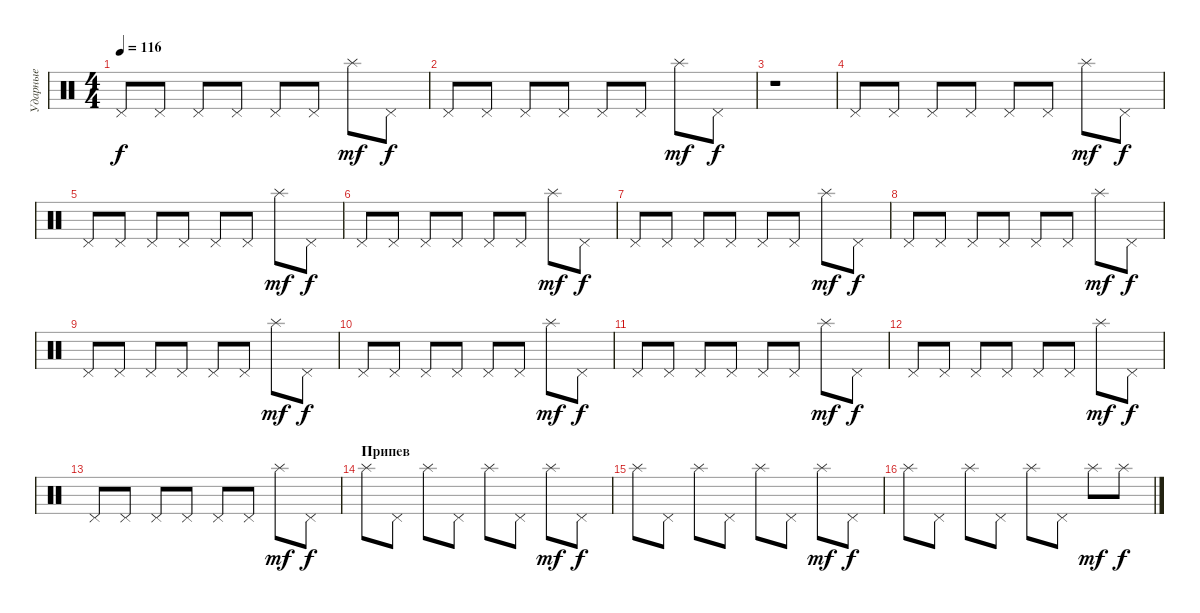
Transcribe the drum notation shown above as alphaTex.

\track ("Ударные" "Ударные") {instrument percussion}
\staff {score}
\articulation defaults
\ts (4 4)
\tempo 116
\clef neutral
\ks c "Pedal Hi-Hat (hit)".8{dy f} "Pedal Hi-Hat (hit)".8 "Pedal Hi-Hat (hit)".8 "Pedal Hi-Hat (hit)".8 "Pedal Hi-Hat (hit)".8 "Pedal Hi-Hat (hit)".8 "Splash (hit)".8{dy mf} "Pedal Hi-Hat (hit)".8{dy f}
|
"Pedal Hi-Hat (hit)".8 "Pedal Hi-Hat (hit)".8 "Pedal Hi-Hat (hit)".8 "Pedal Hi-Hat (hit)".8 "Pedal Hi-Hat (hit)".8 "Pedal Hi-Hat (hit)".8 "Splash (hit)".8{dy mf} "Pedal Hi-Hat (hit)".8{dy f} |
r.1 |
"Pedal Hi-Hat (hit)".8 "Pedal Hi-Hat (hit)".8 "Pedal Hi-Hat (hit)".8 "Pedal Hi-Hat (hit)".8 "Pedal Hi-Hat (hit)".8 "Pedal Hi-Hat (hit)".8 "Splash (hit)".8{dy mf} "Pedal Hi-Hat (hit)".8{dy f} |
"Pedal Hi-Hat (hit)".8 "Pedal Hi-Hat (hit)".8 "Pedal Hi-Hat (hit)".8 "Pedal Hi-Hat (hit)".8 "Pedal Hi-Hat (hit)".8 "Pedal Hi-Hat (hit)".8 "Splash (hit)".8{dy mf} "Pedal Hi-Hat (hit)".8{dy f} |
"Pedal Hi-Hat (hit)".8 "Pedal Hi-Hat (hit)".8 "Pedal Hi-Hat (hit)".8 "Pedal Hi-Hat (hit)".8 "Pedal Hi-Hat (hit)".8 "Pedal Hi-Hat (hit)".8 "Splash (hit)".8{dy mf} "Pedal Hi-Hat (hit)".8{dy f} |
"Pedal Hi-Hat (hit)".8 "Pedal Hi-Hat (hit)".8 "Pedal Hi-Hat (hit)".8 "Pedal Hi-Hat (hit)".8 "Pedal Hi-Hat (hit)".8 "Pedal Hi-Hat (hit)".8 "Splash (hit)".8{dy mf} "Pedal Hi-Hat (hit)".8{dy f} |
"Pedal Hi-Hat (hit)".8 "Pedal Hi-Hat (hit)".8 "Pedal Hi-Hat (hit)".8 "Pedal Hi-Hat (hit)".8 "Pedal Hi-Hat (hit)".8 "Pedal Hi-Hat (hit)".8 "Splash (hit)".8{dy mf} "Pedal Hi-Hat (hit)".8{dy f} |
"Pedal Hi-Hat (hit)".8 "Pedal Hi-Hat (hit)".8 "Pedal Hi-Hat (hit)".8 "Pedal Hi-Hat (hit)".8 "Pedal Hi-Hat (hit)".8 "Pedal Hi-Hat (hit)".8 "Splash (hit)".8{dy mf} "Pedal Hi-Hat (hit)".8{dy f} |
"Pedal Hi-Hat (hit)".8 "Pedal Hi-Hat (hit)".8 "Pedal Hi-Hat (hit)".8 "Pedal Hi-Hat (hit)".8 "Pedal Hi-Hat (hit)".8 "Pedal Hi-Hat (hit)".8 "Splash (hit)".8{dy mf} "Pedal Hi-Hat (hit)".8{dy f} |
"Pedal Hi-Hat (hit)".8 "Pedal Hi-Hat (hit)".8 "Pedal Hi-Hat (hit)".8 "Pedal Hi-Hat (hit)".8 "Pedal Hi-Hat (hit)".8 "Pedal Hi-Hat (hit)".8 "Splash (hit)".8{dy mf} "Pedal Hi-Hat (hit)".8{dy f} |
"Pedal Hi-Hat (hit)".8 "Pedal Hi-Hat (hit)".8 "Pedal Hi-Hat (hit)".8 "Pedal Hi-Hat (hit)".8 "Pedal Hi-Hat (hit)".8 "Pedal Hi-Hat (hit)".8 "Splash (hit)".8{dy mf} "Pedal Hi-Hat (hit)".8{dy f} |
"Pedal Hi-Hat (hit)".8 "Pedal Hi-Hat (hit)".8 "Pedal Hi-Hat (hit)".8 "Pedal Hi-Hat (hit)".8 "Pedal Hi-Hat (hit)".8 "Pedal Hi-Hat (hit)".8 "Splash (hit)".8{dy mf} "Pedal Hi-Hat (hit)".8{dy f} |
\section ("" "Припев")
"Splash (hit)".8 "Pedal Hi-Hat (hit)".8 "Splash (hit)".8 "Pedal Hi-Hat (hit)".8 "Splash (hit)".8 "Pedal Hi-Hat (hit)".8 "Splash (hit)".8{dy mf} "Pedal Hi-Hat (hit)".8{dy f} |
"Splash (hit)".8 "Pedal Hi-Hat (hit)".8 "Splash (hit)".8 "Pedal Hi-Hat (hit)".8 "Splash (hit)".8 "Pedal Hi-Hat (hit)".8 "Splash (hit)".8{dy mf} "Pedal Hi-Hat (hit)".8{dy f} |
"Splash (hit)".8 "Pedal Hi-Hat (hit)".8 "Splash (hit)".8 "Pedal Hi-Hat (hit)".8 "Splash (hit)".8 "Pedal Hi-Hat (hit)".8 "Splash (hit)".8{dy mf} "Splash (hit)".8{dy f}
